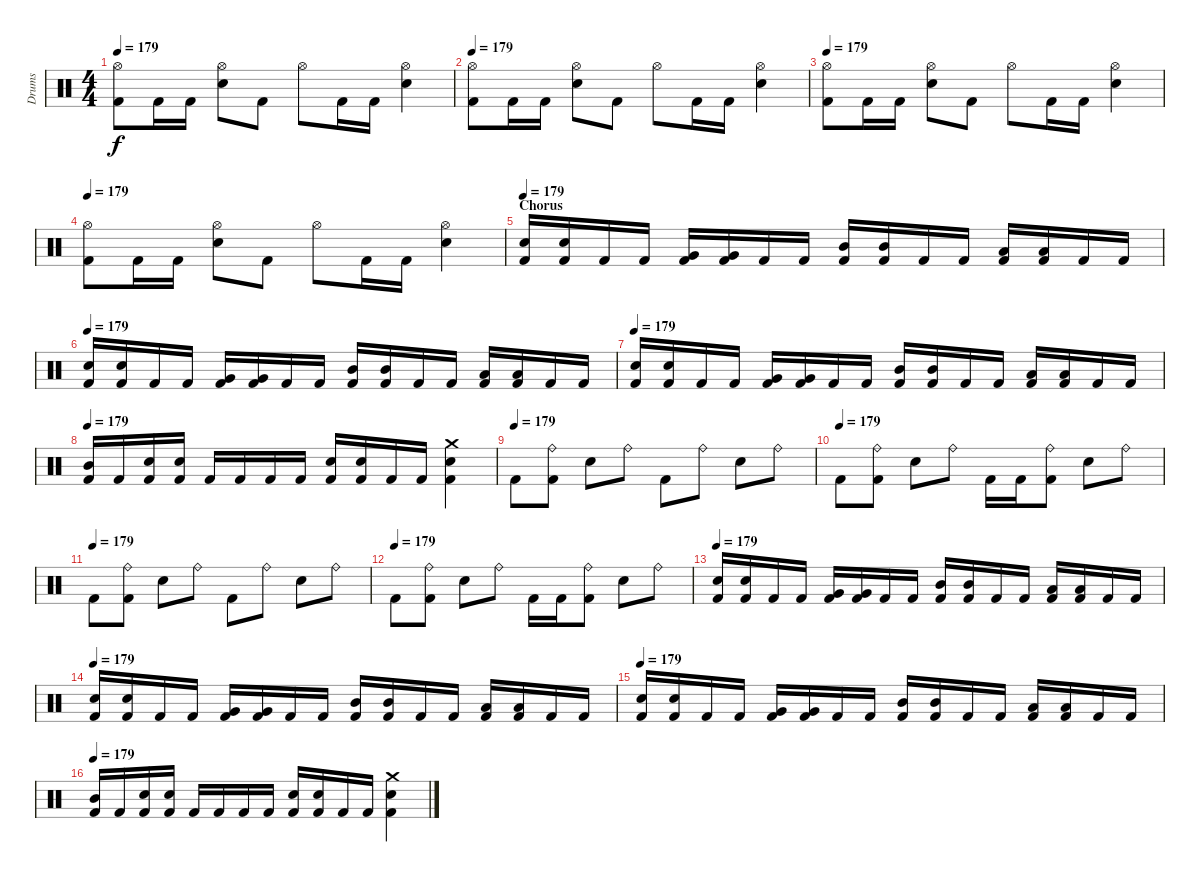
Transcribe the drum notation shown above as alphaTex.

\track ("Drums" "Drums") {instrument percussion}
\staff {score}
\articulation defaults
\ts (4 4)
\tempo 179
\clef neutral
\ks c
("Hi-Hat (open)" "Kick (hit) 2").8{dy f} "Kick (hit) 2".16 "Kick (hit) 2".16 ("Hi-Hat (open)" "Electric Snare (hit)").8 "Kick (hit) 2".8 "Hi-Hat (open)".8 "Kick (hit) 2".16 "Kick (hit) 2".16 ("Hi-Hat (open)" "Electric Snare (hit)").4 |
\tempo 179
("Hi-Hat (open)" "Kick (hit) 2").8 "Kick (hit) 2".16 "Kick (hit) 2".16 ("Hi-Hat (open)" "Electric Snare (hit)").8 "Kick (hit) 2".8 "Hi-Hat (open)".8 "Kick (hit) 2".16 "Kick (hit) 2".16 ("Hi-Hat (open)" "Electric Snare (hit)").4 |
\tempo 179
("Hi-Hat (open)" "Kick (hit) 2").8 "Kick (hit) 2".16 "Kick (hit) 2".16 ("Hi-Hat (open)" "Electric Snare (hit)").8 "Kick (hit) 2".8 "Hi-Hat (open)".8 "Kick (hit) 2".16 "Kick (hit) 2".16 ("Hi-Hat (open)" "Electric Snare (hit)").4 |
\tempo 179
("Hi-Hat (open)" "Kick (hit) 2").8 "Kick (hit) 2".16 "Kick (hit) 2".16 ("Hi-Hat (open)" "Electric Snare (hit)").8 "Kick (hit) 2".8 "Hi-Hat (open)".8 "Kick (hit) 2".16 "Kick (hit) 2".16 ("Hi-Hat (open)" "Electric Snare (hit)").4 |
\section ("" "Chorus")
\tempo 179
("Electric Snare (hit)" "Kick (hit) 2").16 ("Electric Snare (hit)" "Kick (hit) 2").16 "Kick (hit) 2".16 "Kick (hit) 2".16 ("Very Low Tom (hit)" "Kick (hit) 2").16 ("Very Low Tom (hit)" "Kick (hit) 2").16 "Kick (hit) 2".16 "Kick (hit) 2".16 ("Mid Tom (hit)" "Kick (hit) 2").16 ("Mid Tom (hit)" "Kick (hit) 2").16 "Kick (hit) 2".16 "Kick (hit) 2".16 ("Low Tom (hit)" "Kick (hit) 2").16 ("Low Tom (hit)" "Kick (hit) 2").16 "Kick (hit) 2".16 "Kick (hit) 2".16 |
\tempo 179
("Electric Snare (hit)" "Kick (hit) 2").16 ("Electric Snare (hit)" "Kick (hit) 2").16 "Kick (hit) 2".16 "Kick (hit) 2".16 ("Very Low Tom (hit)" "Kick (hit) 2").16 ("Very Low Tom (hit)" "Kick (hit) 2").16 "Kick (hit) 2".16 "Kick (hit) 2".16 ("Mid Tom (hit)" "Kick (hit) 2").16 ("Mid Tom (hit)" "Kick (hit) 2").16 "Kick (hit) 2".16 "Kick (hit) 2".16 ("Low Tom (hit)" "Kick (hit) 2").16 ("Low Tom (hit)" "Kick (hit) 2").16 "Kick (hit) 2".16 "Kick (hit) 2".16 |
\tempo 179
("Electric Snare (hit)" "Kick (hit) 2").16 ("Electric Snare (hit)" "Kick (hit) 2").16 "Kick (hit) 2".16 "Kick (hit) 2".16 ("Very Low Tom (hit)" "Kick (hit) 2").16 ("Very Low Tom (hit)" "Kick (hit) 2").16 "Kick (hit) 2".16 "Kick (hit) 2".16 ("Mid Tom (hit)" "Kick (hit) 2").16 ("Mid Tom (hit)" "Kick (hit) 2").16 "Kick (hit) 2".16 "Kick (hit) 2".16 ("Low Tom (hit)" "Kick (hit) 2").16 ("Low Tom (hit)" "Kick (hit) 2").16 "Kick (hit) 2".16 "Kick (hit) 2".16 |
\tempo 179
("Mid Tom (hit)" "Kick (hit) 2").16 "Kick (hit) 2".16 ("Electric Snare (hit)" "Kick (hit) 2").16 ("Electric Snare (hit)" "Kick (hit) 2").16 "Kick (hit) 2".16 "Kick (hit) 2".16 "Kick (hit) 2".16 "Kick (hit) 2".16 ("Electric Snare (hit)" "Kick (hit) 2").16 ("Electric Snare (hit)" "Kick (hit) 2").16 "Kick (hit) 2".16 "Kick (hit) 2".16 ("Crash medium (hit)" "Electric Snare (hit)" "Kick (hit) 2").4 |
\tempo (179)
"Kick (hit) 2".8 ("Ride (bell)" "Kick (hit) 2").8 "Electric Snare (hit)".8 "Ride (bell)".8 "Kick (hit) 2".8 "Ride (bell)".8 "Electric Snare (hit)".8 "Ride (bell)".8 |
\tempo (179)
"Kick (hit) 2".8 ("Ride (bell)" "Kick (hit) 2").8 "Electric Snare (hit)".8 "Ride (bell)".8 "Kick (hit) 2".16 "Kick (hit) 2".16 ("Ride (bell)" "Kick (hit) 2").8 "Electric Snare (hit)".8 "Ride (bell)".8 |
\tempo (179)
"Kick (hit) 2".8 ("Ride (bell)" "Kick (hit) 2").8 "Electric Snare (hit)".8 "Ride (bell)".8 "Kick (hit) 2".8 "Ride (bell)".8 "Electric Snare (hit)".8 "Ride (bell)".8 |
\tempo (179)
"Kick (hit) 2".8 ("Ride (bell)" "Kick (hit) 2").8 "Electric Snare (hit)".8 "Ride (bell)".8 "Kick (hit) 2".16 "Kick (hit) 2".16 ("Ride (bell)" "Kick (hit) 2").8 "Electric Snare (hit)".8 "Ride (bell)".8 |
\tempo 179
("Electric Snare (hit)" "Kick (hit) 2").16 ("Electric Snare (hit)" "Kick (hit) 2").16 "Kick (hit) 2".16 "Kick (hit) 2".16 ("Very Low Tom (hit)" "Kick (hit) 2").16 ("Very Low Tom (hit)" "Kick (hit) 2").16 "Kick (hit) 2".16 "Kick (hit) 2".16 ("Mid Tom (hit)" "Kick (hit) 2").16 ("Mid Tom (hit)" "Kick (hit) 2").16 "Kick (hit) 2".16 "Kick (hit) 2".16 ("Low Tom (hit)" "Kick (hit) 2").16 ("Low Tom (hit)" "Kick (hit) 2").16 "Kick (hit) 2".16 "Kick (hit) 2".16 |
\tempo 179
("Electric Snare (hit)" "Kick (hit) 2").16 ("Electric Snare (hit)" "Kick (hit) 2").16 "Kick (hit) 2".16 "Kick (hit) 2".16 ("Very Low Tom (hit)" "Kick (hit) 2").16 ("Very Low Tom (hit)" "Kick (hit) 2").16 "Kick (hit) 2".16 "Kick (hit) 2".16 ("Mid Tom (hit)" "Kick (hit) 2").16 ("Mid Tom (hit)" "Kick (hit) 2").16 "Kick (hit) 2".16 "Kick (hit) 2".16 ("Low Tom (hit)" "Kick (hit) 2").16 ("Low Tom (hit)" "Kick (hit) 2").16 "Kick (hit) 2".16 "Kick (hit) 2".16 |
\tempo 179
("Electric Snare (hit)" "Kick (hit) 2").16 ("Electric Snare (hit)" "Kick (hit) 2").16 "Kick (hit) 2".16 "Kick (hit) 2".16 ("Very Low Tom (hit)" "Kick (hit) 2").16 ("Very Low Tom (hit)" "Kick (hit) 2").16 "Kick (hit) 2".16 "Kick (hit) 2".16 ("Mid Tom (hit)" "Kick (hit) 2").16 ("Mid Tom (hit)" "Kick (hit) 2").16 "Kick (hit) 2".16 "Kick (hit) 2".16 ("Low Tom (hit)" "Kick (hit) 2").16 ("Low Tom (hit)" "Kick (hit) 2").16 "Kick (hit) 2".16 "Kick (hit) 2".16 |
\tempo 179
("Mid Tom (hit)" "Kick (hit) 2").16 "Kick (hit) 2".16 ("Electric Snare (hit)" "Kick (hit) 2").16 ("Electric Snare (hit)" "Kick (hit) 2").16 "Kick (hit) 2".16 "Kick (hit) 2".16 "Kick (hit) 2".16 "Kick (hit) 2".16 ("Electric Snare (hit)" "Kick (hit) 2").16 ("Electric Snare (hit)" "Kick (hit) 2").16 "Kick (hit) 2".16 "Kick (hit) 2".16 ("Crash medium (hit)" "Electric Snare (hit)" "Kick (hit) 2").4
